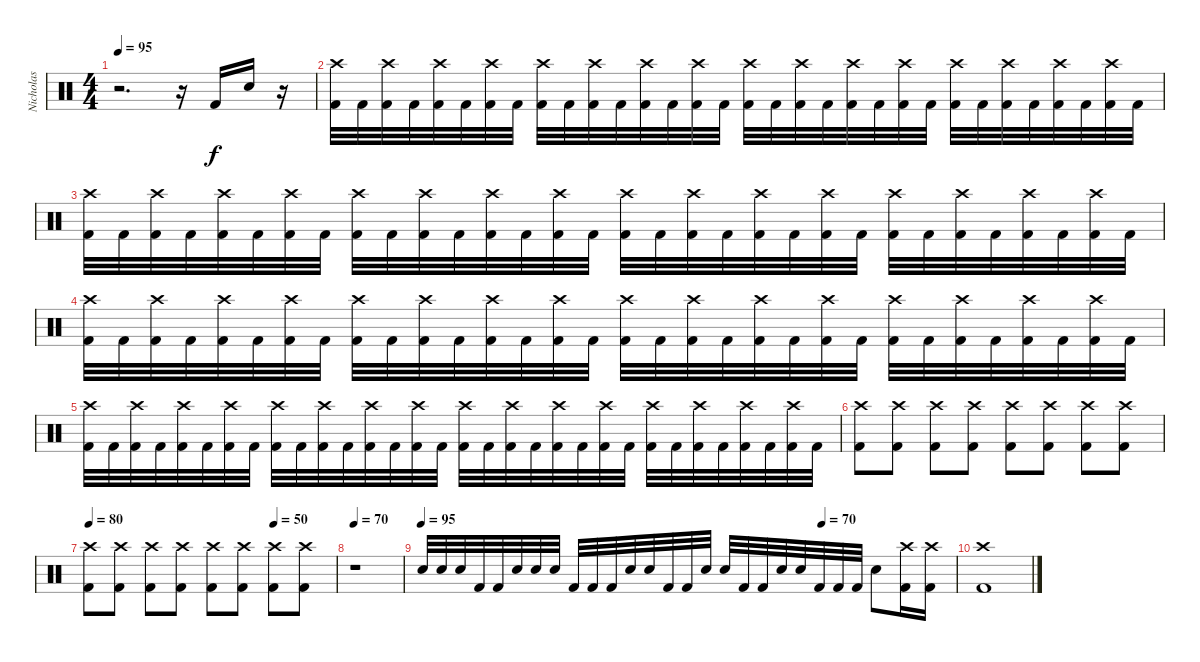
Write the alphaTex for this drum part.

\track ("Nicholas" "Nicholas") {instrument percussion}
\staff {score}
\articulation defaults
\ts (4 4)
\tempo 95
\clef neutral
\ks c
r.2{d dy f} r.16 "Kick (hit) 2".16 "Electric Snare (hit)".16 r.16 |
("Crash high (hit)" "Kick (hit) 2").32 "Kick (hit) 2".32 ("Crash high (hit)" "Kick (hit) 2").32 "Kick (hit) 2".32 ("Crash high (hit)" "Kick (hit) 2").32 "Kick (hit) 2".32 ("Crash high (hit)" "Kick (hit) 2").32 "Kick (hit) 2".32 ("Crash high (hit)" "Kick (hit) 2").32 "Kick (hit) 2".32 ("Crash high (hit)" "Kick (hit) 2").32 "Kick (hit) 2".32 ("Crash high (hit)" "Kick (hit) 2").32 "Kick (hit) 2".32 ("Crash high (hit)" "Kick (hit) 2").32 "Kick (hit) 2".32 ("Crash high (hit)" "Kick (hit) 2").32 "Kick (hit) 2".32 ("Crash high (hit)" "Kick (hit) 2").32 "Kick (hit) 2".32 ("Crash high (hit)" "Kick (hit) 2").32 "Kick (hit) 2".32 ("Crash high (hit)" "Kick (hit) 2").32 "Kick (hit) 2".32 ("Crash high (hit)" "Kick (hit) 2").32 "Kick (hit) 2".32 ("Crash high (hit)" "Kick (hit) 2").32 "Kick (hit) 2".32 ("Crash high (hit)" "Kick (hit) 2").32 "Kick (hit) 2".32 ("Crash high (hit)" "Kick (hit) 2").32 "Kick (hit) 2".32 |
("Crash high (hit)" "Kick (hit) 2").32 "Kick (hit) 2".32 ("Crash high (hit)" "Kick (hit) 2").32 "Kick (hit) 2".32 ("Crash high (hit)" "Kick (hit) 2").32 "Kick (hit) 2".32 ("Crash high (hit)" "Kick (hit) 2").32 "Kick (hit) 2".32 ("Crash high (hit)" "Kick (hit) 2").32 "Kick (hit) 2".32 ("Crash high (hit)" "Kick (hit) 2").32 "Kick (hit) 2".32 ("Crash high (hit)" "Kick (hit) 2").32 "Kick (hit) 2".32 ("Crash high (hit)" "Kick (hit) 2").32 "Kick (hit) 2".32 ("Crash high (hit)" "Kick (hit) 2").32 "Kick (hit) 2".32 ("Crash high (hit)" "Kick (hit) 2").32 "Kick (hit) 2".32 ("Crash high (hit)" "Kick (hit) 2").32 "Kick (hit) 2".32 ("Crash high (hit)" "Kick (hit) 2").32 "Kick (hit) 2".32 ("Crash high (hit)" "Kick (hit) 2").32 "Kick (hit) 2".32 ("Crash high (hit)" "Kick (hit) 2").32 "Kick (hit) 2".32 ("Crash high (hit)" "Kick (hit) 2").32 "Kick (hit) 2".32 ("Crash high (hit)" "Kick (hit) 2").32 "Kick (hit) 2".32 |
("Crash high (hit)" "Kick (hit) 2").32 "Kick (hit) 2".32 ("Crash high (hit)" "Kick (hit) 2").32 "Kick (hit) 2".32 ("Crash high (hit)" "Kick (hit) 2").32 "Kick (hit) 2".32 ("Crash high (hit)" "Kick (hit) 2").32 "Kick (hit) 2".32 ("Crash high (hit)" "Kick (hit) 2").32 "Kick (hit) 2".32 ("Crash high (hit)" "Kick (hit) 2").32 "Kick (hit) 2".32 ("Crash high (hit)" "Kick (hit) 2").32 "Kick (hit) 2".32 ("Crash high (hit)" "Kick (hit) 2").32 "Kick (hit) 2".32 ("Crash high (hit)" "Kick (hit) 2").32 "Kick (hit) 2".32 ("Crash high (hit)" "Kick (hit) 2").32 "Kick (hit) 2".32 ("Crash high (hit)" "Kick (hit) 2").32 "Kick (hit) 2".32 ("Crash high (hit)" "Kick (hit) 2").32 "Kick (hit) 2".32 ("Crash high (hit)" "Kick (hit) 2").32 "Kick (hit) 2".32 ("Crash high (hit)" "Kick (hit) 2").32 "Kick (hit) 2".32 ("Crash high (hit)" "Kick (hit) 2").32 "Kick (hit) 2".32 ("Crash high (hit)" "Kick (hit) 2").32 "Kick (hit) 2".32 |
("Crash high (hit)" "Kick (hit) 2").32 "Kick (hit) 2".32 ("Crash high (hit)" "Kick (hit) 2").32 "Kick (hit) 2".32 ("Crash high (hit)" "Kick (hit) 2").32 "Kick (hit) 2".32 ("Crash high (hit)" "Kick (hit) 2").32 "Kick (hit) 2".32 ("Crash high (hit)" "Kick (hit) 2").32 "Kick (hit) 2".32 ("Crash high (hit)" "Kick (hit) 2").32 "Kick (hit) 2".32 ("Crash high (hit)" "Kick (hit) 2").32 "Kick (hit) 2".32 ("Crash high (hit)" "Kick (hit) 2").32 "Kick (hit) 2".32 ("Crash high (hit)" "Kick (hit) 2").32 "Kick (hit) 2".32 ("Crash high (hit)" "Kick (hit) 2").32 "Kick (hit) 2".32 ("Crash high (hit)" "Kick (hit) 2").32 "Kick (hit) 2".32 ("Crash high (hit)" "Kick (hit) 2").32 "Kick (hit) 2".32 ("Crash high (hit)" "Kick (hit) 2").32 "Kick (hit) 2".32 ("Crash high (hit)" "Kick (hit) 2").32 "Kick (hit) 2".32 ("Crash high (hit)" "Kick (hit) 2").32 "Kick (hit) 2".32 ("Crash high (hit)" "Kick (hit) 2").32 "Kick (hit) 2".32 |
("Crash high (hit)" "Kick (hit) 2").8 ("Crash high (hit)" "Kick (hit) 2").8 ("Crash high (hit)" "Kick (hit) 2").8 ("Crash high (hit)" "Kick (hit) 2").8 ("Crash high (hit)" "Kick (hit) 2").8 ("Crash high (hit)" "Kick (hit) 2").8 ("Crash high (hit)" "Kick (hit) 2").8 ("Crash high (hit)" "Kick (hit) 2").8 |
\tempo 80
\tempo (50 0.75)
("Crash high (hit)" "Kick (hit) 2").8 ("Crash high (hit)" "Kick (hit) 2").8 ("Crash high (hit)" "Kick (hit) 2").8 ("Crash high (hit)" "Kick (hit) 2").8 ("Crash high (hit)" "Kick (hit) 2").8 ("Crash high (hit)" "Kick (hit) 2").8 ("Crash high (hit)" "Kick (hit) 2").8 ("Crash high (hit)" "Kick (hit) 2").8 |
\tempo 70
r.1 |
\tempo 95
\tempo (70 0.75)
"Electric Snare (hit)".32 "Electric Snare (hit)".32 "Electric Snare (hit)".32 "Kick (hit) 2".32 "Kick (hit) 2".32 "Electric Snare (hit)".32 "Electric Snare (hit)".32 "Electric Snare (hit)".32 "Kick (hit) 2".32 "Kick (hit) 2".32 "Kick (hit) 2".32 "Electric Snare (hit)".32 "Electric Snare (hit)".32 "Kick (hit) 2".32 "Kick (hit) 2".32 "Electric Snare (hit)".32 "Electric Snare (hit)".32 "Kick (hit) 2".32 "Kick (hit) 2".32 "Electric Snare (hit)".32 "Electric Snare (hit)".32 "Kick (hit) 2".32 "Kick (hit) 2".32 "Kick (hit) 2".32 "Electric Snare (hit)".8 ("Crash high (hit)" "Kick (hit) 2").16 ("Crash high (hit)" "Kick (hit) 2").16 |
("Crash high (hit)" "Kick (hit) 2").1
